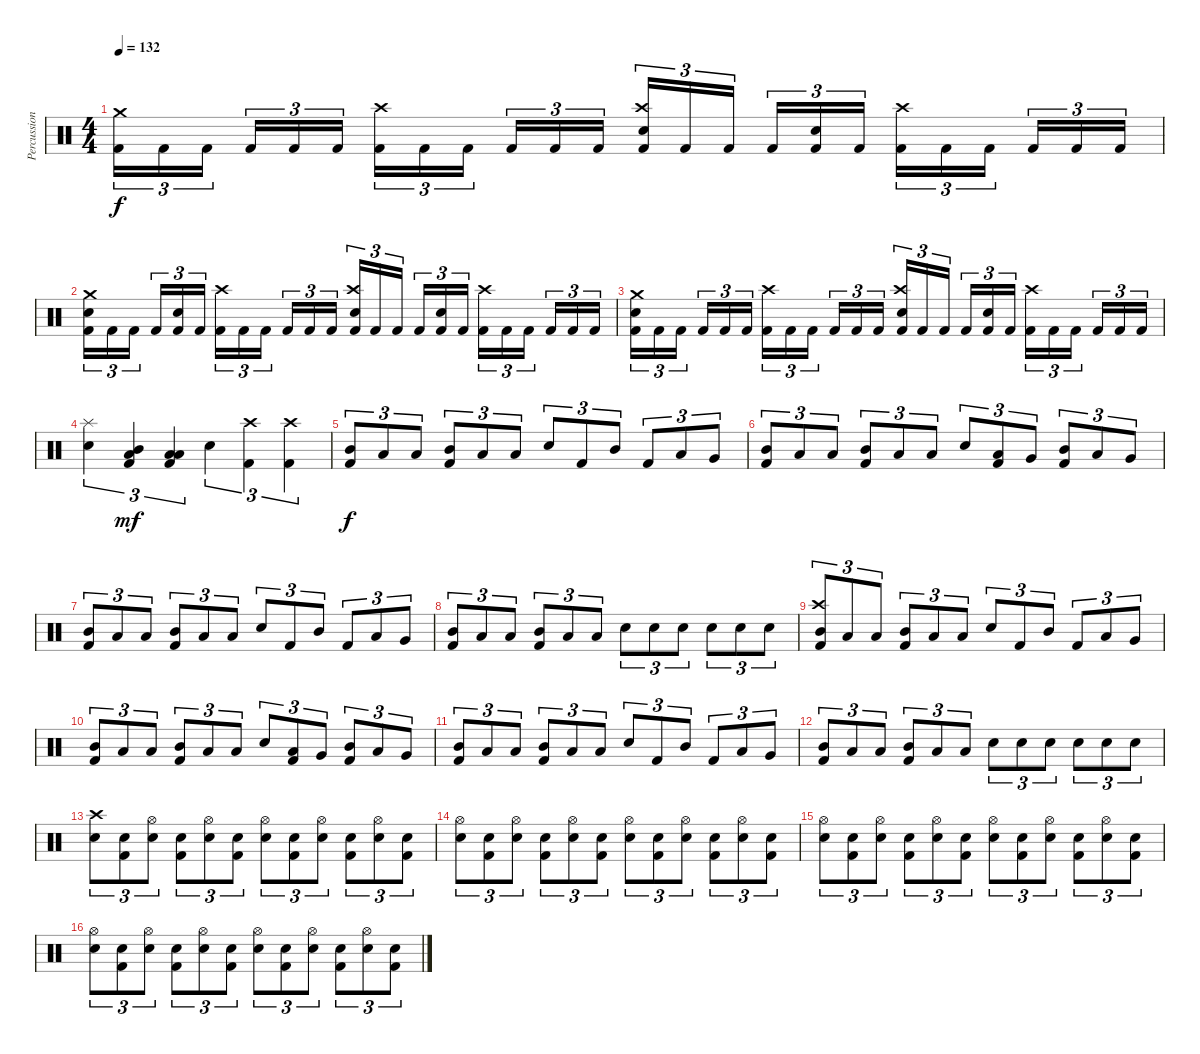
\track ("Percussion" "Percussion") {instrument percussion}
\staff {score}
\articulation defaults
\ts (4 4)
\tempo 132
\clef neutral
\ks c
("Crash medium (hit)" "Kick (hit) 2").16{tu (3 2) dy f} "Kick (hit) 2".16{tu (3 2)} "Kick (hit) 2".16{tu (3 2) beam splitsecondary} "Kick (hit) 2".16{tu (3 2)} "Kick (hit) 2".16{tu (3 2)} "Kick (hit) 2".16{tu (3 2)} ("Crash high (hit)" "Kick (hit) 2").16{tu (3 2)} "Kick (hit) 2".16{tu (3 2)} "Kick (hit) 2".16{tu (3 2) beam splitsecondary} "Kick (hit) 2".16{tu (3 2)} "Kick (hit) 2".16{tu (3 2)} "Kick (hit) 2".16{tu (3 2)} ("Crash high (hit)" "Snare (hit) 2" "Kick (hit) 2").16{tu (3 2)} "Kick (hit) 2".16{tu (3 2)} "Kick (hit) 2".16{tu (3 2) beam splitsecondary} "Kick (hit) 2".16{tu (3 2)} ("Snare (hit) 2" "Kick (hit) 2").16{tu (3 2)} "Kick (hit) 2".16{tu (3 2)} ("Crash high (hit)" "Kick (hit) 2").16{tu (3 2)} "Kick (hit) 2".16{tu (3 2)} "Kick (hit) 2".16{tu (3 2) beam splitsecondary} "Kick (hit) 2".16{tu (3 2)} "Kick (hit) 2".16{tu (3 2)} "Kick (hit) 2".16{tu (3 2)} |
("Crash medium (hit)" "Snare (hit) 2" "Kick (hit) 2").16{tu (3 2)} "Kick (hit) 2".16{tu (3 2)} "Kick (hit) 2".16{tu (3 2) beam splitsecondary} "Kick (hit) 2".16{tu (3 2)} ("Snare (hit) 2" "Kick (hit) 2").16{tu (3 2)} "Kick (hit) 2".16{tu (3 2)} ("Crash high (hit)" "Kick (hit) 2").16{tu (3 2)} "Kick (hit) 2".16{tu (3 2)} "Kick (hit) 2".16{tu (3 2) beam splitsecondary} "Kick (hit) 2".16{tu (3 2)} "Kick (hit) 2".16{tu (3 2)} "Kick (hit) 2".16{tu (3 2)} ("Crash high (hit)" "Snare (hit) 2" "Kick (hit) 2").16{tu (3 2)} "Kick (hit) 2".16{tu (3 2)} "Kick (hit) 2".16{tu (3 2) beam splitsecondary} "Kick (hit) 2".16{tu (3 2)} ("Snare (hit) 2" "Kick (hit) 2").16{tu (3 2)} "Kick (hit) 2".16{tu (3 2)} ("Crash high (hit)" "Kick (hit) 2").16{tu (3 2)} "Kick (hit) 2".16{tu (3 2)} "Kick (hit) 2".16{tu (3 2) beam splitsecondary} "Kick (hit) 2".16{tu (3 2)} "Kick (hit) 2".16{tu (3 2)} "Kick (hit) 2".16{tu (3 2)} |
("Crash medium (hit)" "Snare (hit) 2" "Kick (hit) 2").16{tu (3 2)} "Kick (hit) 2".16{tu (3 2)} "Kick (hit) 2".16{tu (3 2) beam splitsecondary} "Kick (hit) 2".16{tu (3 2)} "Kick (hit) 2".16{tu (3 2)} "Kick (hit) 2".16{tu (3 2)} ("Crash high (hit)" "Kick (hit) 2").16{tu (3 2)} "Kick (hit) 2".16{tu (3 2)} "Kick (hit) 2".16{tu (3 2) beam splitsecondary} "Kick (hit) 2".16{tu (3 2)} "Kick (hit) 2".16{tu (3 2)} "Kick (hit) 2".16{tu (3 2)} ("Crash high (hit)" "Snare (hit) 2" "Kick (hit) 2").16{tu (3 2)} "Kick (hit) 2".16{tu (3 2)} "Kick (hit) 2".16{tu (3 2) beam splitsecondary} "Kick (hit) 2".16{tu (3 2)} ("Snare (hit) 2" "Kick (hit) 2").16{tu (3 2)} "Kick (hit) 2".16{tu (3 2)} ("Crash high (hit)" "Kick (hit) 2").16{tu (3 2)} "Kick (hit) 2".16{tu (3 2)} "Kick (hit) 2".16{tu (3 2) beam splitsecondary} "Kick (hit) 2".16{tu (3 2)} "Kick (hit) 2".16{tu (3 2)} "Kick (hit) 2".16{tu (3 2)} |
("Splash (hit)" "Snare (hit) 2").4{tu (3 2)} ("Mid Tom (hit)" "Low Tom (hit)" "Kick (hit) 2").4{tu (3 2) dy mf} ("Low Tom (hit)" "Low Floor Tom (hit)" "Kick (hit) 2").4{tu (3 2)} "Snare (hit) 2".4{tu (3 2)} ("Crash high (hit)" "Kick (hit) 2").4{tu (3 2)} ("Crash high (hit)" "Kick (hit) 2").4{tu (3 2)} |
("Mid Tom (hit)" "Kick (hit) 2").8{tu (3 2) dy f} "Low Tom (hit)".8{tu (3 2)} "Low Floor Tom (hit)".8{tu (3 2)} ("Mid Tom (hit)" "Kick (hit) 2").8{tu (3 2)} "Low Tom (hit)".8{tu (3 2)} "Low Floor Tom (hit)".8{tu (3 2)} "Snare (hit) 2".8{tu (3 2)} "Kick (hit) 2".8{tu (3 2)} "Mid Tom (hit)".8{tu (3 2)} "Kick (hit) 2".8{tu (3 2)} "Low Tom (hit)".8{tu (3 2)} "Very Low Tom (hit)".8{tu (3 2)} |
("Mid Tom (hit)" "Kick (hit) 2").8{tu (3 2)} "Low Tom (hit)".8{tu (3 2)} "Low Floor Tom (hit)".8{tu (3 2)} ("Mid Tom (hit)" "Kick (hit) 2").8{tu (3 2)} "Low Tom (hit)".8{tu (3 2)} "Low Floor Tom (hit)".8{tu (3 2)} "Snare (hit) 2".8{tu (3 2)} ("Low Tom (hit)" "Kick (hit) 2").8{tu (3 2)} "Very Low Tom (hit)".8{tu (3 2)} ("Mid Tom (hit)" "Kick (hit) 2").8{tu (3 2)} "Low Tom (hit)".8{tu (3 2)} "Very Low Tom (hit)".8{tu (3 2)} |
("Mid Tom (hit)" "Kick (hit) 2").8{tu (3 2)} "Low Tom (hit)".8{tu (3 2)} "Low Floor Tom (hit)".8{tu (3 2)} ("Mid Tom (hit)" "Kick (hit) 2").8{tu (3 2)} "Low Tom (hit)".8{tu (3 2)} "Low Floor Tom (hit)".8{tu (3 2)} "Snare (hit) 2".8{tu (3 2)} "Kick (hit) 2".8{tu (3 2)} "Mid Tom (hit)".8{tu (3 2)} "Kick (hit) 2".8{tu (3 2)} "Low Tom (hit)".8{tu (3 2)} "Very Low Tom (hit)".8{tu (3 2)} |
("Mid Tom (hit)" "Kick (hit) 2").8{tu (3 2)} "Low Tom (hit)".8{tu (3 2)} "Low Floor Tom (hit)".8{tu (3 2)} ("Mid Tom (hit)" "Kick (hit) 2").8{tu (3 2)} "Low Tom (hit)".8{tu (3 2)} "Low Floor Tom (hit)".8{tu (3 2)} "Snare (hit) 2".8{tu (3 2)} "Snare (hit) 2".8{tu (3 2)} "Snare (hit) 2".8{tu (3 2)} "Snare (hit) 2".8{tu (3 2)} "Snare (hit) 2".8{tu (3 2)} "Snare (hit) 2".8{tu (3 2)} |
("Crash high (hit)" "Mid Tom (hit)" "Kick (hit) 2").8{tu (3 2)} "Low Tom (hit)".8{tu (3 2)} "Low Floor Tom (hit)".8{tu (3 2)} ("Mid Tom (hit)" "Kick (hit) 2").8{tu (3 2)} "Low Tom (hit)".8{tu (3 2)} "Low Floor Tom (hit)".8{tu (3 2)} "Snare (hit) 2".8{tu (3 2)} "Kick (hit) 2".8{tu (3 2)} "Mid Tom (hit)".8{tu (3 2)} "Kick (hit) 2".8{tu (3 2)} "Low Tom (hit)".8{tu (3 2)} "Very Low Tom (hit)".8{tu (3 2)} |
("Mid Tom (hit)" "Kick (hit) 2").8{tu (3 2)} "Low Tom (hit)".8{tu (3 2)} "Low Floor Tom (hit)".8{tu (3 2)} ("Mid Tom (hit)" "Kick (hit) 2").8{tu (3 2)} "Low Tom (hit)".8{tu (3 2)} "Low Floor Tom (hit)".8{tu (3 2)} "Snare (hit) 2".8{tu (3 2)} ("Low Tom (hit)" "Kick (hit) 2").8{tu (3 2)} "Very Low Tom (hit)".8{tu (3 2)} ("Mid Tom (hit)" "Kick (hit) 2").8{tu (3 2)} "Low Tom (hit)".8{tu (3 2)} "Very Low Tom (hit)".8{tu (3 2)} |
("Mid Tom (hit)" "Kick (hit) 2").8{tu (3 2)} "Low Tom (hit)".8{tu (3 2)} "Low Floor Tom (hit)".8{tu (3 2)} ("Mid Tom (hit)" "Kick (hit) 2").8{tu (3 2)} "Low Tom (hit)".8{tu (3 2)} "Low Floor Tom (hit)".8{tu (3 2)} "Snare (hit) 2".8{tu (3 2)} "Kick (hit) 2".8{tu (3 2)} "Mid Tom (hit)".8{tu (3 2)} "Kick (hit) 2".8{tu (3 2)} "Low Tom (hit)".8{tu (3 2)} "Very Low Tom (hit)".8{tu (3 2)} |
("Mid Tom (hit)" "Kick (hit) 2").8{tu (3 2)} "Low Tom (hit)".8{tu (3 2)} "Low Floor Tom (hit)".8{tu (3 2)} ("Mid Tom (hit)" "Kick (hit) 2").8{tu (3 2)} "Low Tom (hit)".8{tu (3 2)} "Low Floor Tom (hit)".8{tu (3 2)} "Snare (hit) 2".8{tu (3 2)} "Snare (hit) 2".8{tu (3 2)} "Snare (hit) 2".8{tu (3 2)} "Snare (hit) 2".8{tu (3 2)} "Snare (hit) 2".8{tu (3 2)} "Snare (hit) 2".8{tu (3 2)} |
("Crash high (hit)" "Snare (hit) 2").8{tu (3 2)} ("Snare (hit) 2" "Kick (hit) 2").8{tu (3 2)} ("Hi-Hat (open)" "Snare (hit) 2").8{tu (3 2)} ("Snare (hit) 2" "Kick (hit) 2").8{tu (3 2)} ("Hi-Hat (open)" "Snare (hit) 2").8{tu (3 2)} ("Snare (hit) 2" "Kick (hit) 2").8{tu (3 2)} ("Hi-Hat (open)" "Snare (hit) 2").8{tu (3 2)} ("Snare (hit) 2" "Kick (hit) 2").8{tu (3 2)} ("Hi-Hat (open)" "Snare (hit) 2").8{tu (3 2)} ("Snare (hit) 2" "Kick (hit) 2").8{tu (3 2)} ("Hi-Hat (open)" "Snare (hit) 2").8{tu (3 2)} ("Snare (hit) 2" "Kick (hit) 2").8{tu (3 2)} |
("Hi-Hat (open)" "Snare (hit) 2").8{tu (3 2)} ("Snare (hit) 2" "Kick (hit) 2").8{tu (3 2)} ("Hi-Hat (open)" "Snare (hit) 2").8{tu (3 2)} ("Snare (hit) 2" "Kick (hit) 2").8{tu (3 2)} ("Hi-Hat (open)" "Snare (hit) 2").8{tu (3 2)} ("Snare (hit) 2" "Kick (hit) 2").8{tu (3 2)} ("Hi-Hat (open)" "Snare (hit) 2").8{tu (3 2)} ("Snare (hit) 2" "Kick (hit) 2").8{tu (3 2)} ("Hi-Hat (open)" "Snare (hit) 2").8{tu (3 2)} ("Snare (hit) 2" "Kick (hit) 2").8{tu (3 2)} ("Hi-Hat (open)" "Snare (hit) 2").8{tu (3 2)} ("Snare (hit) 2" "Kick (hit) 2").8{tu (3 2)} |
("Hi-Hat (open)" "Snare (hit) 2").8{tu (3 2)} ("Snare (hit) 2" "Kick (hit) 2").8{tu (3 2)} ("Hi-Hat (open)" "Snare (hit) 2").8{tu (3 2)} ("Snare (hit) 2" "Kick (hit) 2").8{tu (3 2)} ("Hi-Hat (open)" "Snare (hit) 2").8{tu (3 2)} ("Snare (hit) 2" "Kick (hit) 2").8{tu (3 2)} ("Hi-Hat (open)" "Snare (hit) 2").8{tu (3 2)} ("Snare (hit) 2" "Kick (hit) 2").8{tu (3 2)} ("Hi-Hat (open)" "Snare (hit) 2").8{tu (3 2)} ("Snare (hit) 2" "Kick (hit) 2").8{tu (3 2)} ("Hi-Hat (open)" "Snare (hit) 2").8{tu (3 2)} ("Snare (hit) 2" "Kick (hit) 2").8{tu (3 2)} |
("Hi-Hat (open)" "Snare (hit) 2").8{tu (3 2)} ("Snare (hit) 2" "Kick (hit) 2").8{tu (3 2)} ("Hi-Hat (open)" "Snare (hit) 2").8{tu (3 2)} ("Snare (hit) 2" "Kick (hit) 2").8{tu (3 2)} ("Hi-Hat (open)" "Snare (hit) 2").8{tu (3 2)} ("Snare (hit) 2" "Kick (hit) 2").8{tu (3 2)} ("Hi-Hat (open)" "Snare (hit) 2").8{tu (3 2)} ("Snare (hit) 2" "Kick (hit) 2").8{tu (3 2)} ("Hi-Hat (open)" "Snare (hit) 2").8{tu (3 2)} ("Snare (hit) 2" "Kick (hit) 2").8{tu (3 2)} ("Hi-Hat (open)" "Snare (hit) 2").8{tu (3 2)} ("Snare (hit) 2" "Kick (hit) 2").8{tu (3 2)}
